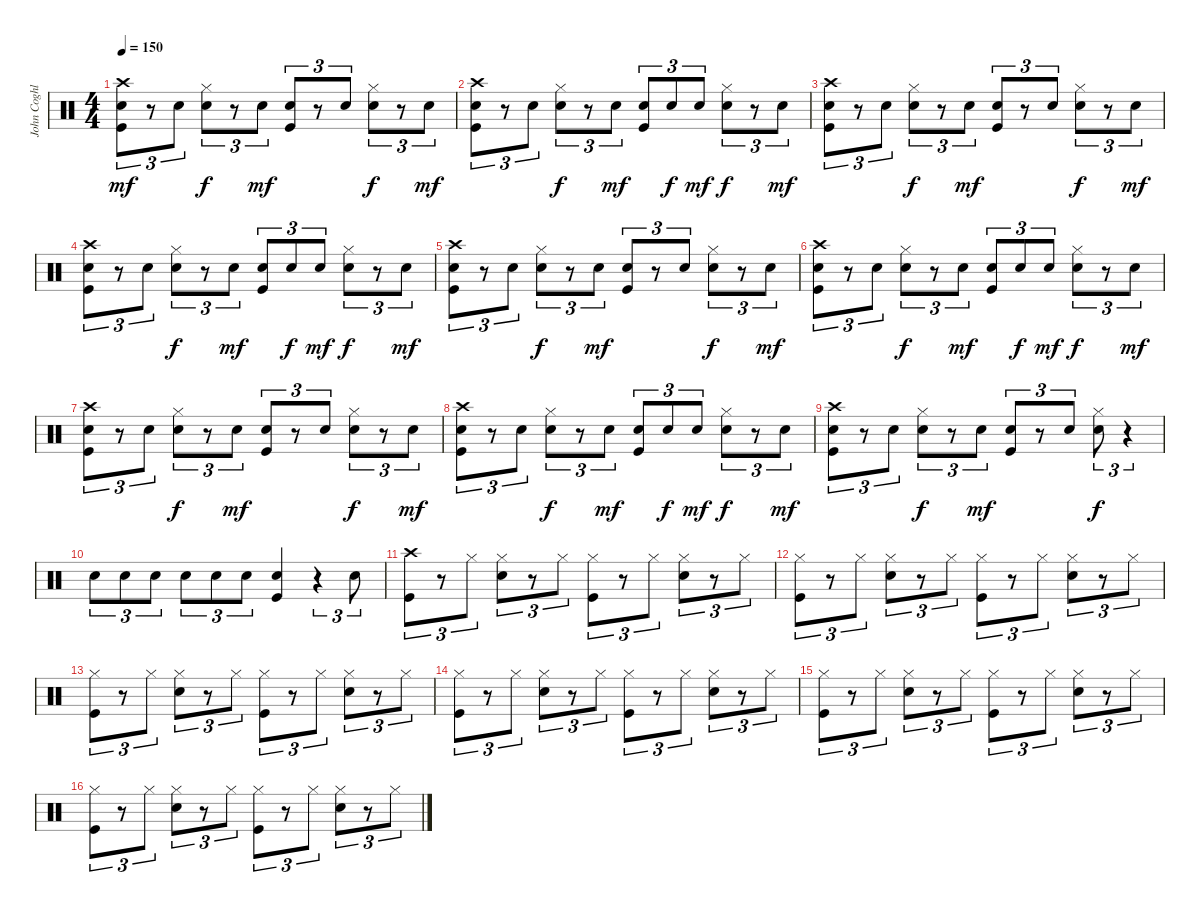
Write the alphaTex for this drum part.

\track ("John Coghlan" "John Coghl") {instrument percussion}
\staff {score}
\articulation defaults
\ts (4 4)
\tempo 150
\clef neutral
\ks c
("Crash high (hit)" "Electric Snare (hit)" "Kick (hit)").8{tu (3 2) dy mf} r.8{tu (3 2)} "Electric Snare (hit)".8{tu (3 2)} ("Hi-Hat (closed)" "Electric Snare (hit)").8{tu (3 2) dy f} r.8{tu (3 2)} "Electric Snare (hit)".8{tu (3 2) dy mf} ("Electric Snare (hit)" "Kick (hit)").8{tu (3 2)} r.8{tu (3 2)} "Electric Snare (hit)".8{tu (3 2)} ("Hi-Hat (closed)" "Electric Snare (hit)").8{tu (3 2) dy f} r.8{tu (3 2)} "Electric Snare (hit)".8{tu (3 2) dy mf} |
("Crash high (hit)" "Electric Snare (hit)" "Kick (hit)").8{tu (3 2)} r.8{tu (3 2)} "Electric Snare (hit)".8{tu (3 2)} ("Hi-Hat (closed)" "Electric Snare (hit)").8{tu (3 2) dy f} r.8{tu (3 2)} "Electric Snare (hit)".8{tu (3 2) dy mf} ("Electric Snare (hit)" "Kick (hit)").8{tu (3 2)} "Electric Snare (hit)".8{tu (3 2) dy f} "Electric Snare (hit)".8{tu (3 2) dy mf} ("Hi-Hat (closed)" "Electric Snare (hit)").8{tu (3 2) dy f} r.8{tu (3 2)} "Electric Snare (hit)".8{tu (3 2) dy mf} |
("Crash high (hit)" "Electric Snare (hit)" "Kick (hit)").8{tu (3 2)} r.8{tu (3 2)} "Electric Snare (hit)".8{tu (3 2)} ("Hi-Hat (closed)" "Electric Snare (hit)").8{tu (3 2) dy f} r.8{tu (3 2)} "Electric Snare (hit)".8{tu (3 2) dy mf} ("Electric Snare (hit)" "Kick (hit)").8{tu (3 2)} r.8{tu (3 2)} "Electric Snare (hit)".8{tu (3 2)} ("Hi-Hat (closed)" "Electric Snare (hit)").8{tu (3 2) dy f} r.8{tu (3 2)} "Electric Snare (hit)".8{tu (3 2) dy mf} |
("Crash high (hit)" "Electric Snare (hit)" "Kick (hit)").8{tu (3 2)} r.8{tu (3 2)} "Electric Snare (hit)".8{tu (3 2)} ("Hi-Hat (closed)" "Electric Snare (hit)").8{tu (3 2) dy f} r.8{tu (3 2)} "Electric Snare (hit)".8{tu (3 2) dy mf} ("Electric Snare (hit)" "Kick (hit)").8{tu (3 2)} "Electric Snare (hit)".8{tu (3 2) dy f} "Electric Snare (hit)".8{tu (3 2) dy mf} ("Hi-Hat (closed)" "Electric Snare (hit)").8{tu (3 2) dy f} r.8{tu (3 2)} "Electric Snare (hit)".8{tu (3 2) dy mf} |
("Crash high (hit)" "Electric Snare (hit)" "Kick (hit)").8{tu (3 2)} r.8{tu (3 2)} "Electric Snare (hit)".8{tu (3 2)} ("Hi-Hat (closed)" "Electric Snare (hit)").8{tu (3 2) dy f} r.8{tu (3 2)} "Electric Snare (hit)".8{tu (3 2) dy mf} ("Electric Snare (hit)" "Kick (hit)").8{tu (3 2)} r.8{tu (3 2)} "Electric Snare (hit)".8{tu (3 2)} ("Hi-Hat (closed)" "Electric Snare (hit)").8{tu (3 2) dy f} r.8{tu (3 2)} "Electric Snare (hit)".8{tu (3 2) dy mf} |
("Crash high (hit)" "Electric Snare (hit)" "Kick (hit)").8{tu (3 2)} r.8{tu (3 2)} "Electric Snare (hit)".8{tu (3 2)} ("Hi-Hat (closed)" "Electric Snare (hit)").8{tu (3 2) dy f} r.8{tu (3 2)} "Electric Snare (hit)".8{tu (3 2) dy mf} ("Electric Snare (hit)" "Kick (hit)").8{tu (3 2)} "Electric Snare (hit)".8{tu (3 2) dy f} "Electric Snare (hit)".8{tu (3 2) dy mf} ("Hi-Hat (closed)" "Electric Snare (hit)").8{tu (3 2) dy f} r.8{tu (3 2)} "Electric Snare (hit)".8{tu (3 2) dy mf} |
("Crash high (hit)" "Electric Snare (hit)" "Kick (hit)").8{tu (3 2)} r.8{tu (3 2)} "Electric Snare (hit)".8{tu (3 2)} ("Hi-Hat (closed)" "Electric Snare (hit)").8{tu (3 2) dy f} r.8{tu (3 2)} "Electric Snare (hit)".8{tu (3 2) dy mf} ("Electric Snare (hit)" "Kick (hit)").8{tu (3 2)} r.8{tu (3 2)} "Electric Snare (hit)".8{tu (3 2)} ("Hi-Hat (closed)" "Electric Snare (hit)").8{tu (3 2) dy f} r.8{tu (3 2)} "Electric Snare (hit)".8{tu (3 2) dy mf} |
("Crash high (hit)" "Electric Snare (hit)" "Kick (hit)").8{tu (3 2)} r.8{tu (3 2)} "Electric Snare (hit)".8{tu (3 2)} ("Hi-Hat (closed)" "Electric Snare (hit)").8{tu (3 2) dy f} r.8{tu (3 2)} "Electric Snare (hit)".8{tu (3 2) dy mf} ("Electric Snare (hit)" "Kick (hit)").8{tu (3 2)} "Electric Snare (hit)".8{tu (3 2) dy f} "Electric Snare (hit)".8{tu (3 2) dy mf} ("Hi-Hat (closed)" "Electric Snare (hit)").8{tu (3 2) dy f} r.8{tu (3 2)} "Electric Snare (hit)".8{tu (3 2) dy mf} |
("Crash high (hit)" "Electric Snare (hit)" "Kick (hit)").8{tu (3 2)} r.8{tu (3 2)} "Electric Snare (hit)".8{tu (3 2)} ("Hi-Hat (closed)" "Electric Snare (hit)").8{tu (3 2) dy f} r.8{tu (3 2)} "Electric Snare (hit)".8{tu (3 2) dy mf} ("Electric Snare (hit)" "Kick (hit)").8{tu (3 2)} r.8{tu (3 2)} "Electric Snare (hit)".8{tu (3 2)} ("Hi-Hat (closed)" "Electric Snare (hit)").8{tu (3 2) dy f} r.4{tu (3 2)} |
"Electric Snare (hit)".8{tu (3 2)} "Electric Snare (hit)".8{tu (3 2)} "Electric Snare (hit)".8{tu (3 2)} "Electric Snare (hit)".8{tu (3 2)} "Electric Snare (hit)".8{tu (3 2)} "Electric Snare (hit)".8{tu (3 2)} ("Electric Snare (hit)" "Kick (hit)").4 r.4{tu (3 2)} "Electric Snare (hit)".8{tu (3 2)} |
("Crash high (hit)" "Kick (hit)").8{tu (3 2)} r.8{tu (3 2)} "Hi-Hat (closed)".8{tu (3 2)} ("Electric Snare (hit)" "Hi-Hat (closed)").8{tu (3 2)} r.8{tu (3 2)} "Hi-Hat (closed)".8{tu (3 2)} ("Hi-Hat (closed)" "Kick (hit)").8{tu (3 2)} r.8{tu (3 2)} "Hi-Hat (closed)".8{tu (3 2)} ("Electric Snare (hit)" "Hi-Hat (closed)").8{tu (3 2)} r.8{tu (3 2)} "Hi-Hat (closed)".8{tu (3 2)} |
("Hi-Hat (closed)" "Kick (hit)").8{tu (3 2)} r.8{tu (3 2)} "Hi-Hat (closed)".8{tu (3 2)} ("Electric Snare (hit)" "Hi-Hat (closed)").8{tu (3 2)} r.8{tu (3 2)} "Hi-Hat (closed)".8{tu (3 2)} ("Hi-Hat (closed)" "Kick (hit)").8{tu (3 2)} r.8{tu (3 2)} "Hi-Hat (closed)".8{tu (3 2)} ("Electric Snare (hit)" "Hi-Hat (closed)").8{tu (3 2)} r.8{tu (3 2)} "Hi-Hat (closed)".8{tu (3 2)} |
("Hi-Hat (closed)" "Kick (hit)").8{tu (3 2)} r.8{tu (3 2)} "Hi-Hat (closed)".8{tu (3 2)} ("Electric Snare (hit)" "Hi-Hat (closed)").8{tu (3 2)} r.8{tu (3 2)} "Hi-Hat (closed)".8{tu (3 2)} ("Hi-Hat (closed)" "Kick (hit)").8{tu (3 2)} r.8{tu (3 2)} "Hi-Hat (closed)".8{tu (3 2)} ("Electric Snare (hit)" "Hi-Hat (closed)").8{tu (3 2)} r.8{tu (3 2)} "Hi-Hat (closed)".8{tu (3 2)} |
("Hi-Hat (closed)" "Kick (hit)").8{tu (3 2)} r.8{tu (3 2)} "Hi-Hat (closed)".8{tu (3 2)} ("Electric Snare (hit)" "Hi-Hat (closed)").8{tu (3 2)} r.8{tu (3 2)} "Hi-Hat (closed)".8{tu (3 2)} ("Hi-Hat (closed)" "Kick (hit)").8{tu (3 2)} r.8{tu (3 2)} "Hi-Hat (closed)".8{tu (3 2)} ("Electric Snare (hit)" "Hi-Hat (closed)").8{tu (3 2)} r.8{tu (3 2)} "Hi-Hat (closed)".8{tu (3 2)} |
("Hi-Hat (closed)" "Kick (hit)").8{tu (3 2)} r.8{tu (3 2)} "Hi-Hat (closed)".8{tu (3 2)} ("Electric Snare (hit)" "Hi-Hat (closed)").8{tu (3 2)} r.8{tu (3 2)} "Hi-Hat (closed)".8{tu (3 2)} ("Hi-Hat (closed)" "Kick (hit)").8{tu (3 2)} r.8{tu (3 2)} "Hi-Hat (closed)".8{tu (3 2)} ("Electric Snare (hit)" "Hi-Hat (closed)").8{tu (3 2)} r.8{tu (3 2)} "Hi-Hat (closed)".8{tu (3 2)} |
("Hi-Hat (closed)" "Kick (hit)").8{tu (3 2)} r.8{tu (3 2)} "Hi-Hat (closed)".8{tu (3 2)} ("Electric Snare (hit)" "Hi-Hat (closed)").8{tu (3 2)} r.8{tu (3 2)} "Hi-Hat (closed)".8{tu (3 2)} ("Hi-Hat (closed)" "Kick (hit)").8{tu (3 2)} r.8{tu (3 2)} "Hi-Hat (closed)".8{tu (3 2)} ("Electric Snare (hit)" "Hi-Hat (closed)").8{tu (3 2)} r.8{tu (3 2)} "Hi-Hat (closed)".8{tu (3 2)}
